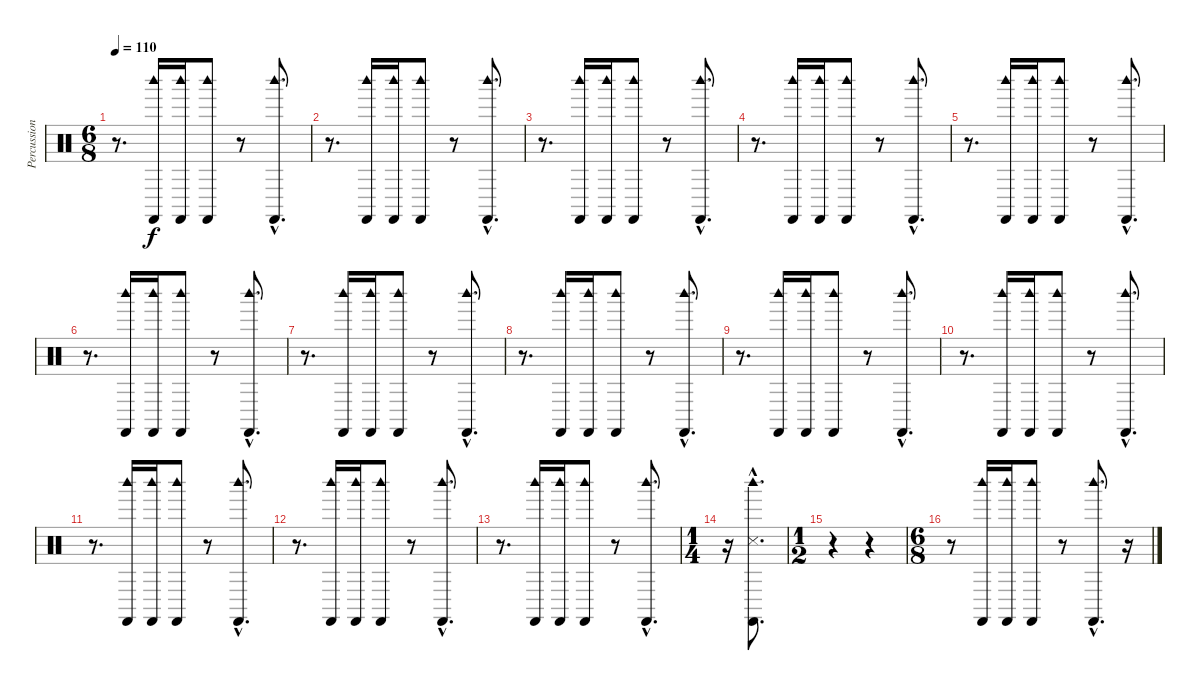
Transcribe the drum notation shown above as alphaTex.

\track ("Percussion" "Percussion") {instrument percussion}
\staff {score}
\articulation defaults
\ts (6 8)
\tempo 110
\clef neutral
\ks c
r.8{d dy f} ("Woodblock high (hit)" "Castanets (hit)").16 ("Woodblock high (hit)" "Castanets (hit)").16 ("Woodblock high (hit)" "Castanets (hit)").8 r.8 ("Woodblock high (hit)"{hac} "Castanets (hit)"{hac}).8{d} |
r.8{d} ("Woodblock high (hit)" "Castanets (hit)").16 ("Woodblock high (hit)" "Castanets (hit)").16 ("Woodblock high (hit)" "Castanets (hit)").8 r.8 ("Woodblock high (hit)"{hac} "Castanets (hit)"{hac}).8{d} |
r.8{d} ("Woodblock high (hit)" "Castanets (hit)").16 ("Woodblock high (hit)" "Castanets (hit)").16 ("Woodblock high (hit)" "Castanets (hit)").8 r.8 ("Woodblock high (hit)"{hac} "Castanets (hit)"{hac}).8{d} |
r.8{d} ("Woodblock high (hit)" "Castanets (hit)").16 ("Woodblock high (hit)" "Castanets (hit)").16 ("Woodblock high (hit)" "Castanets (hit)").8 r.8 ("Woodblock high (hit)"{hac} "Castanets (hit)"{hac}).8{d} |
r.8{d} ("Woodblock high (hit)" "Castanets (hit)").16 ("Woodblock high (hit)" "Castanets (hit)").16 ("Woodblock high (hit)" "Castanets (hit)").8 r.8 ("Woodblock high (hit)"{hac} "Castanets (hit)"{hac}).8{d} |
r.8{d} ("Woodblock high (hit)" "Castanets (hit)").16 ("Woodblock high (hit)" "Castanets (hit)").16 ("Woodblock high (hit)" "Castanets (hit)").8 r.8 ("Woodblock high (hit)"{hac} "Castanets (hit)"{hac}).8{d} |
r.8{d} ("Woodblock high (hit)" "Castanets (hit)").16 ("Woodblock high (hit)" "Castanets (hit)").16 ("Woodblock high (hit)" "Castanets (hit)").8 r.8 ("Woodblock high (hit)"{hac} "Castanets (hit)"{hac}).8{d} |
r.8{d} ("Woodblock high (hit)" "Castanets (hit)").16 ("Woodblock high (hit)" "Castanets (hit)").16 ("Woodblock high (hit)" "Castanets (hit)").8 r.8 ("Woodblock high (hit)"{hac} "Castanets (hit)"{hac}).8{d} |
r.8{d} ("Woodblock high (hit)" "Castanets (hit)").16 ("Woodblock high (hit)" "Castanets (hit)").16 ("Woodblock high (hit)" "Castanets (hit)").8 r.8 ("Woodblock high (hit)"{hac} "Castanets (hit)"{hac}).8{d} |
r.8{d} ("Woodblock high (hit)" "Castanets (hit)").16 ("Woodblock high (hit)" "Castanets (hit)").16 ("Woodblock high (hit)" "Castanets (hit)").8 r.8 ("Woodblock high (hit)"{hac} "Castanets (hit)"{hac}).8{d} |
r.8{d} ("Woodblock high (hit)" "Castanets (hit)").16 ("Woodblock high (hit)" "Castanets (hit)").16 ("Woodblock high (hit)" "Castanets (hit)").8 r.8 ("Woodblock high (hit)"{hac} "Castanets (hit)"{hac}).8{d} |
r.8{d} ("Woodblock high (hit)" "Castanets (hit)").16 ("Woodblock high (hit)" "Castanets (hit)").16 ("Woodblock high (hit)" "Castanets (hit)").8 r.8 ("Woodblock high (hit)"{hac} "Castanets (hit)"{hac}).8{d} |
r.8{d} ("Woodblock high (hit)" "Castanets (hit)").16 ("Woodblock high (hit)" "Castanets (hit)").16 ("Woodblock high (hit)" "Castanets (hit)").8 r.8 ("Woodblock high (hit)"{hac} "Castanets (hit)"{hac}).8{d} |
\ts (1 4)
r.16 ("Castanets (hit)"{hac} "Woodblock high (hit)"{hac} "Snare (side stick) 3"{hac}).8{d} |
\ts (1 2)
r.4 r.4 |
\ts (6 8)
r.8 ("Woodblock high (hit)" "Castanets (hit)").16 ("Woodblock high (hit)" "Castanets (hit)").16 ("Woodblock high (hit)" "Castanets (hit)").8 r.8 ("Woodblock high (hit)"{hac} "Castanets (hit)"{hac}).8{d} r.16
